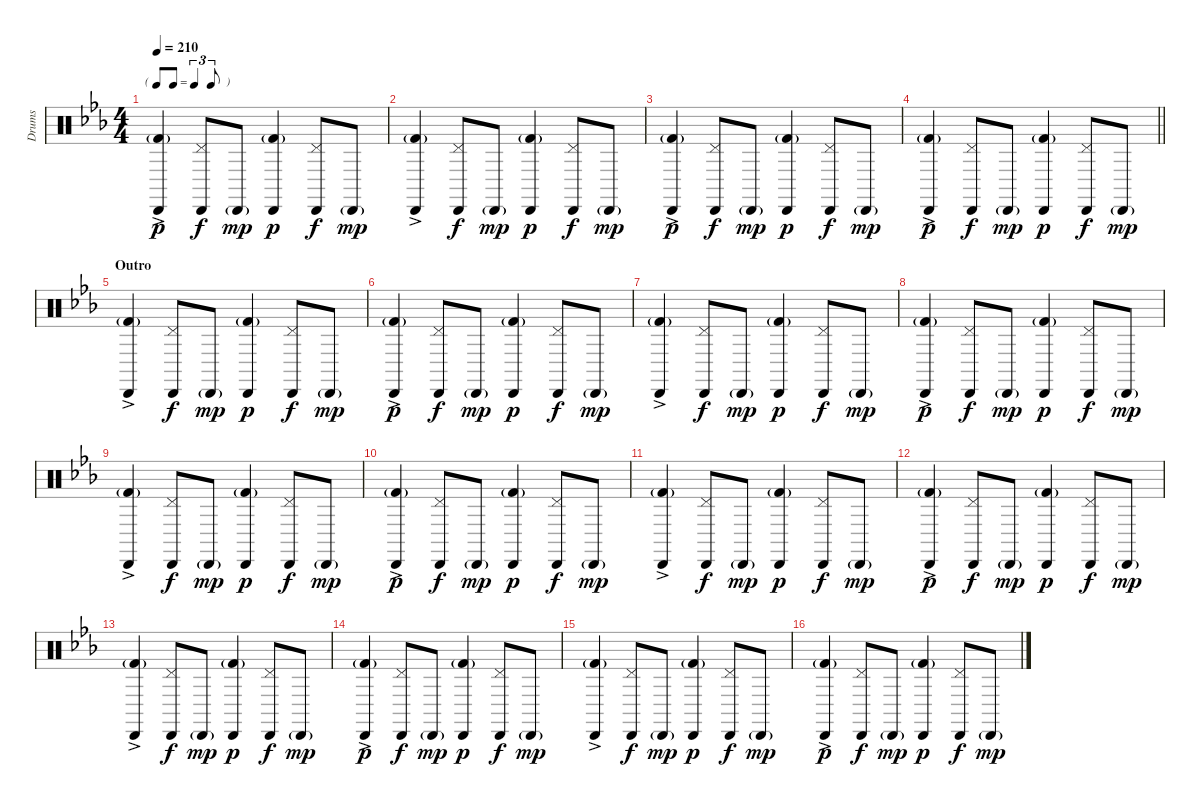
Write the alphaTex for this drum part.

\track ("Drums" "Drums") {instrument percussion}
\staff {score}
\articulation defaults
\ts (4 4)
\tf triplet8th
\tempo 210
\clef neutral
\ks eb
("Cabasa (hit)"{ac} "Kick (hit) 2"{g}).4{dy p} ("Cabasa (hit)" "Pedal Hi-Hat (hit)").8{dy f} "Cabasa (hit)"{g}.8{dy mp} ("Cabasa (hit)" "Kick (hit) 2"{g}).4{dy p} ("Cabasa (hit)" "Pedal Hi-Hat (hit)").8{dy f} "Cabasa (hit)"{g}.8{dy mp} |
("Cabasa (hit)"{ac} "Kick (hit) 2"{g}).4 ("Cabasa (hit)" "Pedal Hi-Hat (hit)").8{dy f} "Cabasa (hit)"{g}.8{dy mp} ("Cabasa (hit)" "Kick (hit) 2"{g}).4{dy p} ("Cabasa (hit)" "Pedal Hi-Hat (hit)").8{dy f} "Cabasa (hit)"{g}.8{dy mp} |
("Cabasa (hit)"{ac} "Kick (hit) 2"{g}).4{dy p} ("Cabasa (hit)" "Pedal Hi-Hat (hit)").8{dy f} "Cabasa (hit)"{g}.8{dy mp} ("Cabasa (hit)" "Kick (hit) 2"{g}).4{dy p} ("Cabasa (hit)" "Pedal Hi-Hat (hit)").8{dy f} "Cabasa (hit)"{g}.8{dy mp} |
\barLineRight lightlight
("Cabasa (hit)"{ac} "Kick (hit) 2"{g}).4{dy p} ("Cabasa (hit)" "Pedal Hi-Hat (hit)").8{dy f} "Cabasa (hit)"{g}.8{dy mp} ("Cabasa (hit)" "Kick (hit) 2"{g}).4{dy p} ("Cabasa (hit)" "Pedal Hi-Hat (hit)").8{dy f} "Cabasa (hit)"{g}.8{dy mp} |
\section ("" "Outro")
("Cabasa (hit)"{ac} "Kick (hit) 2"{g}).4 ("Cabasa (hit)" "Pedal Hi-Hat (hit)").8{dy f} "Cabasa (hit)"{g}.8{dy mp} ("Cabasa (hit)" "Kick (hit) 2"{g}).4{dy p} ("Cabasa (hit)" "Pedal Hi-Hat (hit)").8{dy f} "Cabasa (hit)"{g}.8{dy mp} |
("Cabasa (hit)"{ac} "Kick (hit) 2"{g}).4{dy p} ("Cabasa (hit)" "Pedal Hi-Hat (hit)").8{dy f} "Cabasa (hit)"{g}.8{dy mp} ("Cabasa (hit)" "Kick (hit) 2"{g}).4{dy p} ("Cabasa (hit)" "Pedal Hi-Hat (hit)").8{dy f} "Cabasa (hit)"{g}.8{dy mp} |
("Cabasa (hit)"{ac} "Kick (hit) 2"{g}).4 ("Cabasa (hit)" "Pedal Hi-Hat (hit)").8{dy f} "Cabasa (hit)"{g}.8{dy mp} ("Cabasa (hit)" "Kick (hit) 2"{g}).4{dy p} ("Cabasa (hit)" "Pedal Hi-Hat (hit)").8{dy f} "Cabasa (hit)"{g}.8{dy mp} |
("Cabasa (hit)"{ac} "Kick (hit) 2"{g}).4{dy p} ("Cabasa (hit)" "Pedal Hi-Hat (hit)").8{dy f} "Cabasa (hit)"{g}.8{dy mp} ("Cabasa (hit)" "Kick (hit) 2"{g}).4{dy p} ("Cabasa (hit)" "Pedal Hi-Hat (hit)").8{dy f} "Cabasa (hit)"{g}.8{dy mp} |
("Cabasa (hit)"{ac} "Kick (hit) 2"{g}).4 ("Cabasa (hit)" "Pedal Hi-Hat (hit)").8{dy f} "Cabasa (hit)"{g}.8{dy mp} ("Cabasa (hit)" "Kick (hit) 2"{g}).4{dy p} ("Cabasa (hit)" "Pedal Hi-Hat (hit)").8{dy f} "Cabasa (hit)"{g}.8{dy mp} |
("Cabasa (hit)"{ac} "Kick (hit) 2"{g}).4{dy p} ("Cabasa (hit)" "Pedal Hi-Hat (hit)").8{dy f} "Cabasa (hit)"{g}.8{dy mp} ("Cabasa (hit)" "Kick (hit) 2"{g}).4{dy p} ("Cabasa (hit)" "Pedal Hi-Hat (hit)").8{dy f} "Cabasa (hit)"{g}.8{dy mp} |
("Cabasa (hit)"{ac} "Kick (hit) 2"{g}).4 ("Cabasa (hit)" "Pedal Hi-Hat (hit)").8{dy f} "Cabasa (hit)"{g}.8{dy mp} ("Cabasa (hit)" "Kick (hit) 2"{g}).4{dy p} ("Cabasa (hit)" "Pedal Hi-Hat (hit)").8{dy f} "Cabasa (hit)"{g}.8{dy mp} |
("Cabasa (hit)"{ac} "Kick (hit) 2"{g}).4{dy p} ("Cabasa (hit)" "Pedal Hi-Hat (hit)").8{dy f} "Cabasa (hit)"{g}.8{dy mp} ("Cabasa (hit)" "Kick (hit) 2"{g}).4{dy p} ("Cabasa (hit)" "Pedal Hi-Hat (hit)").8{dy f} "Cabasa (hit)"{g}.8{dy mp} |
("Cabasa (hit)"{ac} "Kick (hit) 2"{g}).4 ("Cabasa (hit)" "Pedal Hi-Hat (hit)").8{dy f} "Cabasa (hit)"{g}.8{dy mp} ("Cabasa (hit)" "Kick (hit) 2"{g}).4{dy p} ("Cabasa (hit)" "Pedal Hi-Hat (hit)").8{dy f} "Cabasa (hit)"{g}.8{dy mp} |
("Cabasa (hit)"{ac} "Kick (hit) 2"{g}).4{dy p} ("Cabasa (hit)" "Pedal Hi-Hat (hit)").8{dy f} "Cabasa (hit)"{g}.8{dy mp} ("Cabasa (hit)" "Kick (hit) 2"{g}).4{dy p} ("Cabasa (hit)" "Pedal Hi-Hat (hit)").8{dy f} "Cabasa (hit)"{g}.8{dy mp} |
("Cabasa (hit)"{ac} "Kick (hit) 2"{g}).4 ("Cabasa (hit)" "Pedal Hi-Hat (hit)").8{dy f} "Cabasa (hit)"{g}.8{dy mp} ("Cabasa (hit)" "Kick (hit) 2"{g}).4{dy p} ("Cabasa (hit)" "Pedal Hi-Hat (hit)").8{dy f} "Cabasa (hit)"{g}.8{dy mp} |
("Cabasa (hit)"{ac} "Kick (hit) 2"{g}).4{dy p} ("Cabasa (hit)" "Pedal Hi-Hat (hit)").8{dy f} "Cabasa (hit)"{g}.8{dy mp} ("Cabasa (hit)" "Kick (hit) 2"{g}).4{dy p} ("Cabasa (hit)" "Pedal Hi-Hat (hit)").8{dy f} "Cabasa (hit)"{g}.8{dy mp}
